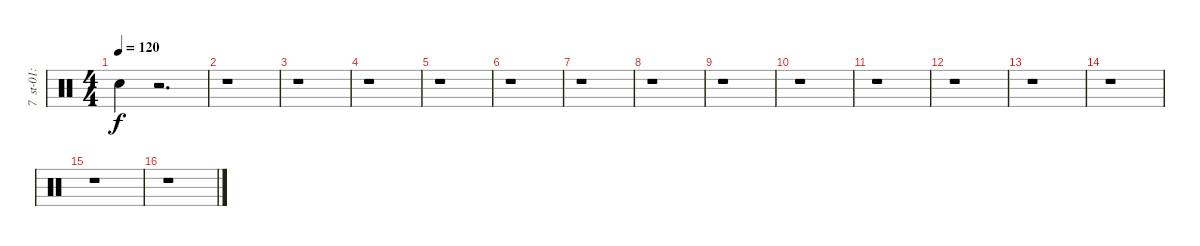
\track (" 7  st-01:claps1" " 7  st-01:") {instrument percussion}
\staff {score}
\articulation defaults
\ts (4 4)
\tempo 120
\clef neutral
\ks c "Snare (hit)"{t}.4{dy f}
r.2{d} |
r.1 |
r.1 |
r.1 |
r.1 |
r.1 |
r.1 |
r.1 |
r.1 |
r.1 |
r.1 |
r.1 |
r.1 |
r.1 |
r.1 |
r.1
